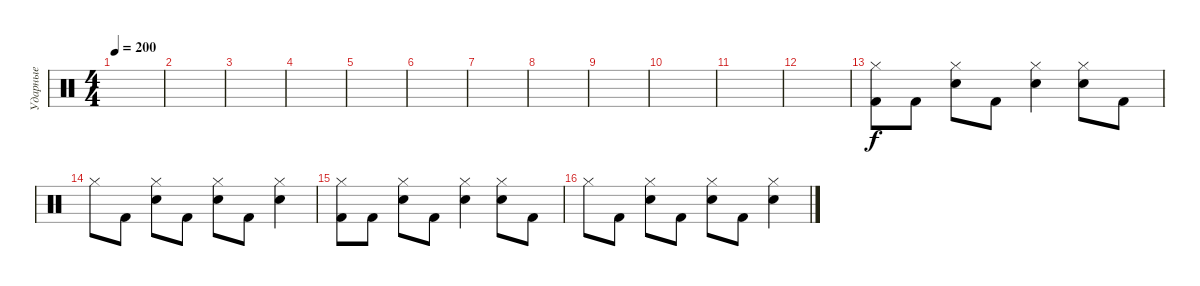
\track ("Ударные" "Ударные") {instrument percussion}
\staff {score}
\articulation defaults
\ts (4 4)
\tempo 200
\clef neutral
\ks c
|
|
|
|
|
|
|
|
|
|
|
|
("Hi-Hat (closed)" "Kick (hit) 2").8{dy f} "Kick (hit) 2".8 ("Hi-Hat (closed)" "Electric Snare (hit)").8 "Kick (hit) 2".8 ("Hi-Hat (closed)" "Electric Snare (hit)").4 ("Hi-Hat (closed)" "Electric Snare (hit)").8 "Kick (hit) 2".8 |
"Hi-Hat (closed)".8 "Kick (hit) 2".8 ("Hi-Hat (closed)" "Electric Snare (hit)").8 "Kick (hit) 2".8 ("Hi-Hat (closed)" "Electric Snare (hit)").8 "Kick (hit) 2".8 ("Hi-Hat (closed)" "Electric Snare (hit)").4 |
("Hi-Hat (closed)" "Kick (hit) 2").8 "Kick (hit) 2".8 ("Hi-Hat (closed)" "Electric Snare (hit)").8 "Kick (hit) 2".8 ("Hi-Hat (closed)" "Electric Snare (hit)").4 ("Hi-Hat (closed)" "Electric Snare (hit)").8 "Kick (hit) 2".8 |
"Hi-Hat (closed)".8 "Kick (hit) 2".8 ("Hi-Hat (closed)" "Electric Snare (hit)").8 "Kick (hit) 2".8 ("Hi-Hat (closed)" "Electric Snare (hit)").8 "Kick (hit) 2".8 ("Hi-Hat (closed)" "Electric Snare (hit)").4
